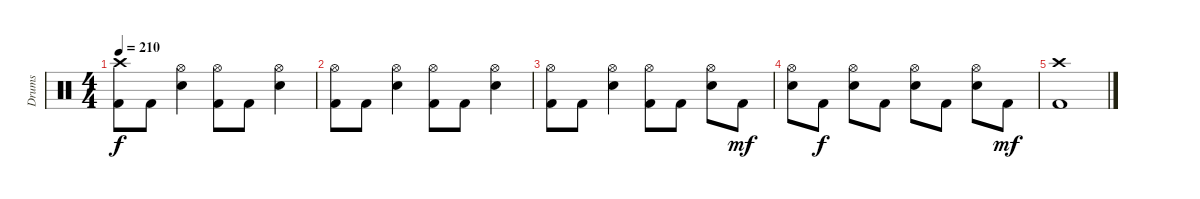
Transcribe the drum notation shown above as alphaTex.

\track ("Drums" "Drums") {instrument percussion}
\staff {score}
\articulation defaults
\ts (4 4)
\tempo 210
\clef neutral
\ks c
("Crash high (hit)" "Kick (hit) 2").8{dy f} "Kick (hit) 2".8 ("Hi-Hat (open)" "Snare (hit) 2").4 ("Hi-Hat (open)" "Kick (hit) 2").8 "Kick (hit) 2".8 ("Hi-Hat (open)" "Snare (hit) 2").4 |
("Hi-Hat (open)" "Kick (hit) 2").8 "Kick (hit) 2".8 ("Hi-Hat (open)" "Snare (hit) 2").4 ("Hi-Hat (open)" "Kick (hit) 2").8 "Kick (hit) 2".8 ("Hi-Hat (open)" "Snare (hit) 2").4 |
("Hi-Hat (open)" "Kick (hit) 2").8 "Kick (hit) 2".8 ("Hi-Hat (open)" "Snare (hit) 2").4 ("Hi-Hat (open)" "Kick (hit) 2").8 "Kick (hit) 2".8 ("Hi-Hat (open)" "Snare (hit) 2").8 "Kick (hit) 2".8{dy mf} |
("Hi-Hat (open)" "Snare (hit) 2").8 "Kick (hit) 2".8{dy f} ("Hi-Hat (open)" "Snare (hit) 2").8 "Kick (hit) 2".8 ("Hi-Hat (open)" "Snare (hit) 2").8 "Kick (hit) 2".8 ("Hi-Hat (open)" "Snare (hit) 2").8 "Kick (hit) 2".8{dy mf} |
("Crash high (hit)" "Kick (hit) 2").1
